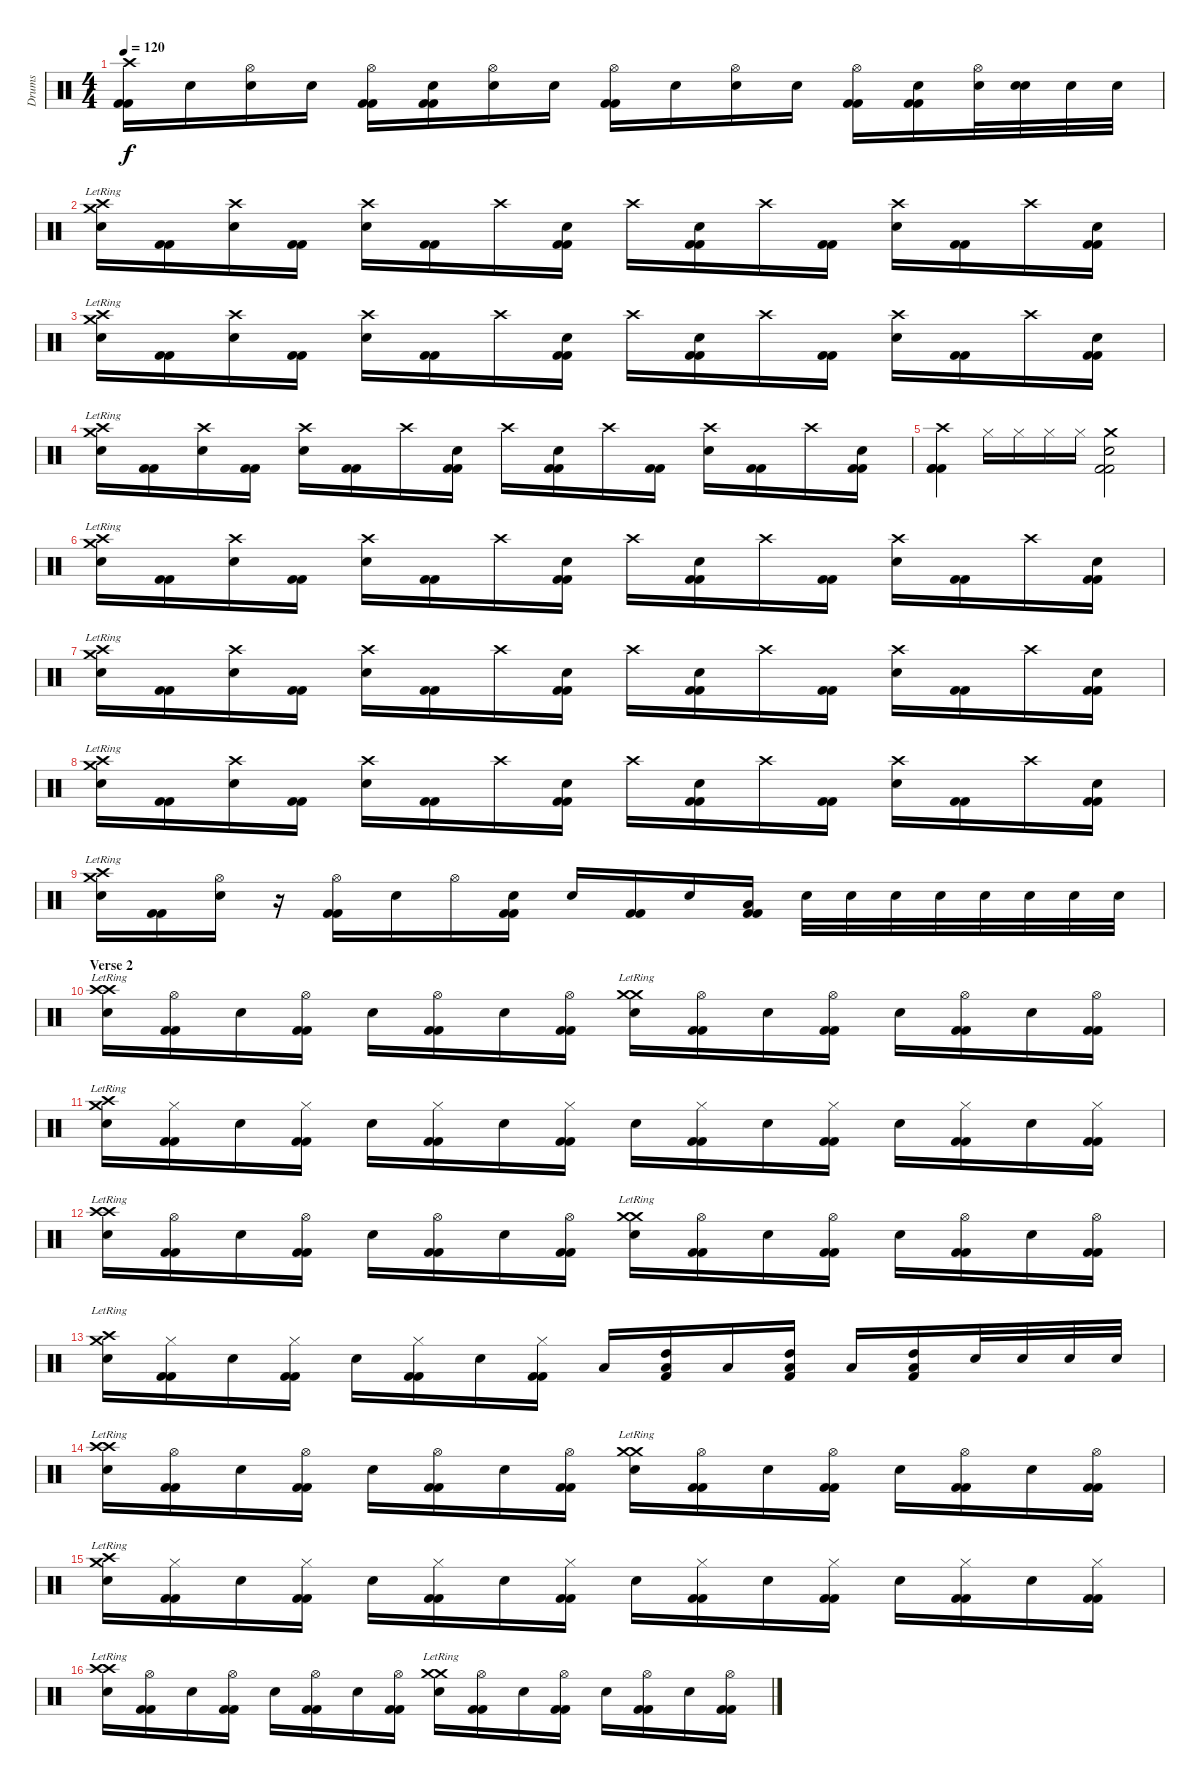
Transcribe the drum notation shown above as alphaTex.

\track ("Drums" "Drums") {instrument percussion}
\staff {score}
\articulation defaults
\ts (4 4)
\tempo 120
\clef neutral
\ks c
("Crash high (hit)" "Kick (hit) 2" "Kick (hit) 2").16{dy f} "Snare (hit)".16 ("Hi-Hat (open)" "Electric Snare (hit)").16 "Snare (hit)".16 ("Hi-Hat (open)" "Kick (hit) 2" "Kick (hit) 2").16 ("Snare (hit)" "Kick (hit) 2" "Kick (hit) 2").16 ("Hi-Hat (open)" "Electric Snare (hit)").16 "Snare (hit)".16 ("Hi-Hat (open)" "Kick (hit) 2" "Kick (hit) 2").16 "Snare (hit)".16 ("Hi-Hat (open)" "Electric Snare (hit)").16 "Snare (hit)".16 ("Hi-Hat (open)" "Kick (hit) 2" "Kick (hit) 2").16 ("Snare (hit)" "Kick (hit) 2" "Kick (hit) 2").16 ("Hi-Hat (open)" "Electric Snare (hit)").32 ("Snare (hit)" "Electric Snare (hit)").32 "Electric Snare (hit)".32 "Electric Snare (hit)".32 |
("Crash medium (hit)"{lr} "Crash high (hit)"{lr} "Electric Snare (hit)").16 ("Kick (hit) 2" "Kick (hit) 2").16 ("Crash high (hit)" "Electric Snare (hit)").16 ("Kick (hit) 2" "Kick (hit) 2").16 ("Crash high (hit)" "Electric Snare (hit)").16 ("Kick (hit) 2" "Kick (hit) 2").16 "Crash high (hit)".16 ("Electric Snare (hit)" "Kick (hit) 2" "Kick (hit) 2").16 "Crash high (hit)".16 ("Electric Snare (hit)" "Kick (hit) 2" "Kick (hit) 2").16 "Crash high (hit)".16 ("Kick (hit) 2" "Kick (hit) 2").16 ("Crash high (hit)" "Electric Snare (hit)").16 ("Kick (hit) 2" "Kick (hit) 2").16 "Crash high (hit)".16 ("Electric Snare (hit)" "Kick (hit) 2" "Kick (hit) 2").16 |
("Crash medium (hit)"{lr} "Crash high (hit)"{lr} "Electric Snare (hit)").16 ("Kick (hit) 2" "Kick (hit) 2").16 ("Crash high (hit)" "Electric Snare (hit)").16 ("Kick (hit) 2" "Kick (hit) 2").16 ("Crash high (hit)" "Electric Snare (hit)").16 ("Kick (hit) 2" "Kick (hit) 2").16 "Crash high (hit)".16 ("Electric Snare (hit)" "Kick (hit) 2" "Kick (hit) 2").16 "Crash high (hit)".16 ("Electric Snare (hit)" "Kick (hit) 2" "Kick (hit) 2").16 "Crash high (hit)".16 ("Kick (hit) 2" "Kick (hit) 2").16 ("Crash high (hit)" "Electric Snare (hit)").16 ("Kick (hit) 2" "Kick (hit) 2").16 "Crash high (hit)".16 ("Electric Snare (hit)" "Kick (hit) 2" "Kick (hit) 2").16 |
("Crash medium (hit)"{lr} "Crash high (hit)"{lr} "Electric Snare (hit)").16 ("Kick (hit) 2" "Kick (hit) 2").16 ("Crash high (hit)" "Electric Snare (hit)").16 ("Kick (hit) 2" "Kick (hit) 2").16 ("Crash high (hit)" "Electric Snare (hit)").16 ("Kick (hit) 2" "Kick (hit) 2").16 "Crash high (hit)".16 ("Electric Snare (hit)" "Kick (hit) 2" "Kick (hit) 2").16 "Crash high (hit)".16 ("Electric Snare (hit)" "Kick (hit) 2" "Kick (hit) 2").16 "Crash high (hit)".16 ("Kick (hit) 2" "Kick (hit) 2").16 ("Crash high (hit)" "Electric Snare (hit)").16 ("Kick (hit) 2" "Kick (hit) 2").16 "Crash high (hit)".16 ("Electric Snare (hit)" "Kick (hit) 2" "Kick (hit) 2").16 |
\section ("" "")
("Crash high (hit)" "Kick (hit) 2" "Kick (hit) 2" "Kick (hit) 2").4 "Hi-Hat (closed)".16 "Hi-Hat (closed)".16 "Hi-Hat (closed)".16 "Hi-Hat (closed)".16 ("Crash medium (hit)" "Kick (hit) 2" "Kick (hit) 2" "Snare (hit)").2 |
("Crash medium (hit)"{lr} "Crash high (hit)"{lr} "Electric Snare (hit)").16 ("Kick (hit) 2" "Kick (hit) 2").16 ("Crash high (hit)" "Electric Snare (hit)").16 ("Kick (hit) 2" "Kick (hit) 2").16 ("Crash high (hit)" "Electric Snare (hit)").16 ("Kick (hit) 2" "Kick (hit) 2").16 "Crash high (hit)".16 ("Electric Snare (hit)" "Kick (hit) 2" "Kick (hit) 2").16 "Crash high (hit)".16 ("Electric Snare (hit)" "Kick (hit) 2" "Kick (hit) 2").16 "Crash high (hit)".16 ("Kick (hit) 2" "Kick (hit) 2").16 ("Crash high (hit)" "Electric Snare (hit)").16 ("Kick (hit) 2" "Kick (hit) 2").16 "Crash high (hit)".16 ("Electric Snare (hit)" "Kick (hit) 2" "Kick (hit) 2").16 |
("Crash medium (hit)"{lr} "Crash high (hit)"{lr} "Electric Snare (hit)").16 ("Kick (hit) 2" "Kick (hit) 2").16 ("Crash high (hit)" "Electric Snare (hit)").16 ("Kick (hit) 2" "Kick (hit) 2").16 ("Crash high (hit)" "Electric Snare (hit)").16 ("Kick (hit) 2" "Kick (hit) 2").16 "Crash high (hit)".16 ("Electric Snare (hit)" "Kick (hit) 2" "Kick (hit) 2").16 "Crash high (hit)".16 ("Electric Snare (hit)" "Kick (hit) 2" "Kick (hit) 2").16 "Crash high (hit)".16 ("Kick (hit) 2" "Kick (hit) 2").16 ("Crash high (hit)" "Electric Snare (hit)").16 ("Kick (hit) 2" "Kick (hit) 2").16 "Crash high (hit)".16 ("Electric Snare (hit)" "Kick (hit) 2" "Kick (hit) 2").16 |
("Crash medium (hit)"{lr} "Crash high (hit)"{lr} "Electric Snare (hit)").16 ("Kick (hit) 2" "Kick (hit) 2").16 ("Crash high (hit)" "Electric Snare (hit)").16 ("Kick (hit) 2" "Kick (hit) 2").16 ("Crash high (hit)" "Electric Snare (hit)").16 ("Kick (hit) 2" "Kick (hit) 2").16 "Crash high (hit)".16 ("Electric Snare (hit)" "Kick (hit) 2" "Kick (hit) 2").16 "Crash high (hit)".16 ("Electric Snare (hit)" "Kick (hit) 2" "Kick (hit) 2").16 "Crash high (hit)".16 ("Kick (hit) 2" "Kick (hit) 2").16 ("Crash high (hit)" "Electric Snare (hit)").16 ("Kick (hit) 2" "Kick (hit) 2").16 "Crash high (hit)".16 ("Electric Snare (hit)" "Kick (hit) 2" "Kick (hit) 2").16 |
("Crash high (hit)"{lr} "Crash medium (hit)"{lr} "Electric Snare (hit)").16 ("Kick (hit) 2" "Kick (hit) 2").16 ("Hi-Hat (open)" "Electric Snare (hit)").16 r.16 ("Hi-Hat (open)" "Kick (hit) 2" "Kick (hit) 2").16 "Electric Snare (hit)".16 "Hi-Hat (open)".16 ("Electric Snare (hit)" "Kick (hit) 2" "Kick (hit) 2").16 "Electric Snare (hit)".16 ("Kick (hit) 2" "Kick (hit) 2").16 "Electric Snare (hit)".16 ("Low Tom (hit)" "Kick (hit) 2" "Kick (hit) 2").16 "Electric Snare (hit)".32 "Electric Snare (hit)".32 "Electric Snare (hit)".32 "Electric Snare (hit)".32 "Electric Snare (hit)".32 "Electric Snare (hit)".32 "Electric Snare (hit)".32 "Electric Snare (hit)".32 |
\section ("" "Verse 2")
("Crash high (hit)"{lr} "Crash high (hit)"{lr} "Electric Snare (hit)").16 ("Hi-Hat (open)" "Kick (hit) 2" "Kick (hit) 2").16 "Electric Snare (hit)".16 ("Hi-Hat (open)" "Kick (hit) 2" "Kick (hit) 2").16 "Electric Snare (hit)".16 ("Hi-Hat (open)" "Kick (hit) 2" "Kick (hit) 2").16 "Electric Snare (hit)".16 ("Hi-Hat (open)" "Kick (hit) 2" "Kick (hit) 2").16 ("Crash medium (hit)"{lr} "Crash medium (hit)"{lr} "Electric Snare (hit)").16 ("Hi-Hat (open)" "Kick (hit) 2" "Kick (hit) 2").16 "Electric Snare (hit)".16 ("Hi-Hat (open)" "Kick (hit) 2" "Kick (hit) 2").16 "Electric Snare (hit)".16 ("Hi-Hat (open)" "Kick (hit) 2" "Kick (hit) 2").16 "Electric Snare (hit)".16 ("Hi-Hat (open)" "Kick (hit) 2" "Kick (hit) 2").16 |
("Crash medium (hit)"{lr} "Crash high (hit)"{lr} "Electric Snare (hit)").16 ("Hi-Hat (closed)" "Kick (hit) 2" "Kick (hit) 2").16 "Electric Snare (hit)".16 ("Hi-Hat (closed)" "Kick (hit) 2" "Kick (hit) 2").16 "Electric Snare (hit)".16 ("Hi-Hat (closed)" "Kick (hit) 2" "Kick (hit) 2").16 "Electric Snare (hit)".16 ("Hi-Hat (closed)" "Kick (hit) 2" "Kick (hit) 2").16 "Electric Snare (hit)".16 ("Hi-Hat (closed)" "Kick (hit) 2" "Kick (hit) 2").16 "Electric Snare (hit)".16 ("Hi-Hat (closed)" "Kick (hit) 2" "Kick (hit) 2").16 "Electric Snare (hit)".16 ("Hi-Hat (closed)" "Kick (hit) 2" "Kick (hit) 2").16 "Electric Snare (hit)".16 ("Hi-Hat (closed)" "Kick (hit) 2" "Kick (hit) 2").16 |
("Crash high (hit)"{lr} "Crash high (hit)"{lr} "Electric Snare (hit)").16 ("Hi-Hat (open)" "Kick (hit) 2" "Kick (hit) 2").16 "Electric Snare (hit)".16 ("Hi-Hat (open)" "Kick (hit) 2" "Kick (hit) 2").16 "Electric Snare (hit)".16 ("Hi-Hat (open)" "Kick (hit) 2" "Kick (hit) 2").16 "Electric Snare (hit)".16 ("Hi-Hat (open)" "Kick (hit) 2" "Kick (hit) 2").16 ("Crash medium (hit)"{lr} "Crash medium (hit)"{lr} "Electric Snare (hit)").16 ("Hi-Hat (open)" "Kick (hit) 2" "Kick (hit) 2").16 "Electric Snare (hit)".16 ("Hi-Hat (open)" "Kick (hit) 2" "Kick (hit) 2").16 "Electric Snare (hit)".16 ("Hi-Hat (open)" "Kick (hit) 2" "Kick (hit) 2").16 "Electric Snare (hit)".16 ("Hi-Hat (open)" "Kick (hit) 2" "Kick (hit) 2").16 |
("Crash medium (hit)"{lr} "Crash high (hit)"{lr} "Electric Snare (hit)").16 ("Hi-Hat (closed)" "Kick (hit) 2" "Kick (hit) 2").16 "Electric Snare (hit)".16 ("Hi-Hat (closed)" "Kick (hit) 2" "Kick (hit) 2").16 "Electric Snare (hit)".16 ("Hi-Hat (closed)" "Kick (hit) 2" "Kick (hit) 2").16 "Electric Snare (hit)".16 ("Hi-Hat (closed)" "Kick (hit) 2" "Kick (hit) 2").16 "Low Tom (hit)".16 ("Low Tom (hit)" "High Tom (hit)" "Kick (hit) 2").16 "Low Floor Tom (hit)".16 ("Low Floor Tom (hit)" "High Tom (hit)" "Kick (hit) 2").16 "Low Tom (hit)".16 ("Low Floor Tom (hit)" "High Tom (hit)" "Kick (hit) 2").16 "Electric Snare (hit)".32 "Electric Snare (hit)".32 "Electric Snare (hit)".32 "Electric Snare (hit)".32 |
("Crash high (hit)"{lr} "Crash high (hit)"{lr} "Electric Snare (hit)").16 ("Hi-Hat (open)" "Kick (hit) 2" "Kick (hit) 2").16 "Electric Snare (hit)".16 ("Hi-Hat (open)" "Kick (hit) 2" "Kick (hit) 2").16 "Electric Snare (hit)".16 ("Hi-Hat (open)" "Kick (hit) 2" "Kick (hit) 2").16 "Electric Snare (hit)".16 ("Hi-Hat (open)" "Kick (hit) 2" "Kick (hit) 2").16 ("Crash medium (hit)"{lr} "Crash medium (hit)"{lr} "Electric Snare (hit)").16 ("Hi-Hat (open)" "Kick (hit) 2" "Kick (hit) 2").16 "Electric Snare (hit)".16 ("Hi-Hat (open)" "Kick (hit) 2" "Kick (hit) 2").16 "Electric Snare (hit)".16 ("Hi-Hat (open)" "Kick (hit) 2" "Kick (hit) 2").16 "Electric Snare (hit)".16 ("Hi-Hat (open)" "Kick (hit) 2" "Kick (hit) 2").16 |
("Crash medium (hit)"{lr} "Crash high (hit)"{lr} "Electric Snare (hit)").16 ("Hi-Hat (closed)" "Kick (hit) 2" "Kick (hit) 2").16 "Electric Snare (hit)".16 ("Hi-Hat (closed)" "Kick (hit) 2" "Kick (hit) 2").16 "Electric Snare (hit)".16 ("Hi-Hat (closed)" "Kick (hit) 2" "Kick (hit) 2").16 "Electric Snare (hit)".16 ("Hi-Hat (closed)" "Kick (hit) 2" "Kick (hit) 2").16 "Electric Snare (hit)".16 ("Hi-Hat (closed)" "Kick (hit) 2" "Kick (hit) 2").16 "Electric Snare (hit)".16 ("Hi-Hat (closed)" "Kick (hit) 2" "Kick (hit) 2").16 "Electric Snare (hit)".16 ("Hi-Hat (closed)" "Kick (hit) 2" "Kick (hit) 2").16 "Electric Snare (hit)".16 ("Hi-Hat (closed)" "Kick (hit) 2" "Kick (hit) 2").16 |
("Crash high (hit)"{lr} "Crash high (hit)"{lr} "Electric Snare (hit)").16 ("Hi-Hat (open)" "Kick (hit) 2" "Kick (hit) 2").16 "Electric Snare (hit)".16 ("Hi-Hat (open)" "Kick (hit) 2" "Kick (hit) 2").16 "Electric Snare (hit)".16 ("Hi-Hat (open)" "Kick (hit) 2" "Kick (hit) 2").16 "Electric Snare (hit)".16 ("Hi-Hat (open)" "Kick (hit) 2" "Kick (hit) 2").16 ("Crash medium (hit)"{lr} "Crash medium (hit)"{lr} "Electric Snare (hit)").16 ("Hi-Hat (open)" "Kick (hit) 2" "Kick (hit) 2").16 "Electric Snare (hit)".16 ("Hi-Hat (open)" "Kick (hit) 2" "Kick (hit) 2").16 "Electric Snare (hit)".16 ("Hi-Hat (open)" "Kick (hit) 2" "Kick (hit) 2").16 "Electric Snare (hit)".16 ("Hi-Hat (open)" "Kick (hit) 2" "Kick (hit) 2").16
